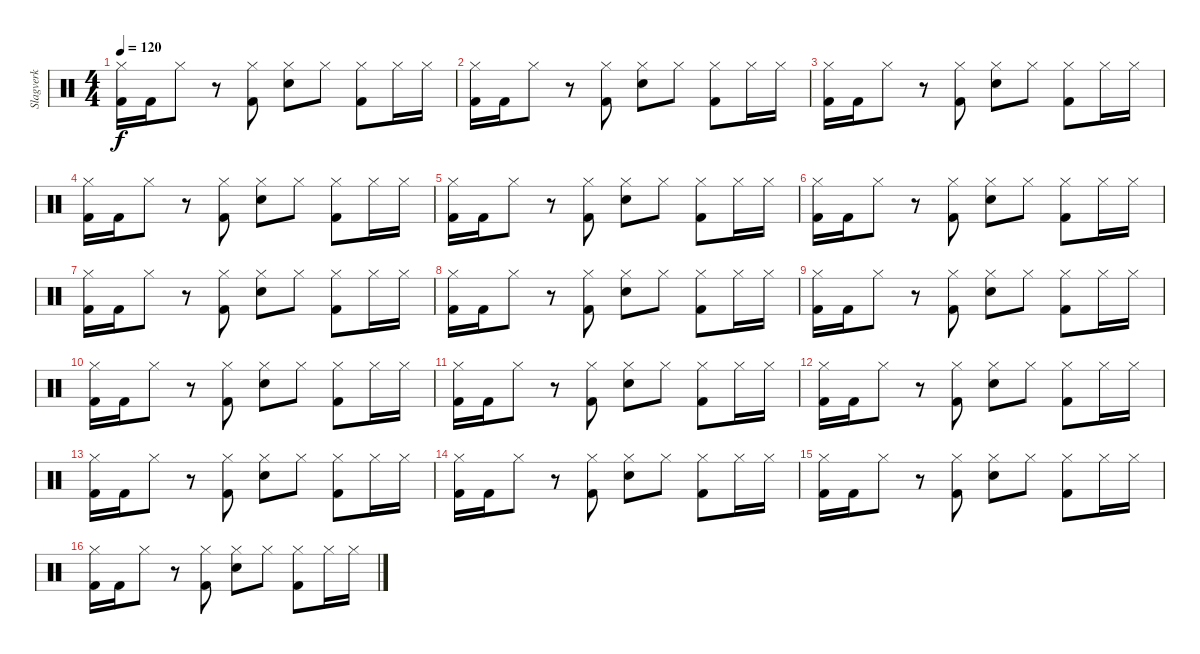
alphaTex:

\track ("Slagverk" "Slagverk") {instrument percussion}
\staff {score}
\articulation defaults
\ts (4 4)
\tempo 120
\clef neutral
\ks c
("Hi-Hat (closed)" "Kick (hit) 2").16{dy f} "Kick (hit) 2".16 "Hi-Hat (closed)".8 r.8 ("Hi-Hat (closed)" "Kick (hit) 2").8 ("Hi-Hat (closed)" "Snare (hit) 2").8 "Hi-Hat (closed)".8 ("Hi-Hat (closed)" "Kick (hit) 2").8 "Hi-Hat (closed)".16 "Hi-Hat (closed)".16 |
("Hi-Hat (closed)" "Kick (hit) 2").16 "Kick (hit) 2".16 "Hi-Hat (closed)".8 r.8 ("Hi-Hat (closed)" "Kick (hit) 2").8 ("Hi-Hat (closed)" "Snare (hit) 2").8 "Hi-Hat (closed)".8 ("Hi-Hat (closed)" "Kick (hit) 2").8 "Hi-Hat (closed)".16 "Hi-Hat (closed)".16 |
("Hi-Hat (closed)" "Kick (hit) 2").16 "Kick (hit) 2".16 "Hi-Hat (closed)".8 r.8 ("Hi-Hat (closed)" "Kick (hit) 2").8 ("Hi-Hat (closed)" "Snare (hit) 2").8 "Hi-Hat (closed)".8 ("Hi-Hat (closed)" "Kick (hit) 2").8 "Hi-Hat (closed)".16 "Hi-Hat (closed)".16 |
("Hi-Hat (closed)" "Kick (hit) 2").16 "Kick (hit) 2".16 "Hi-Hat (closed)".8 r.8 ("Hi-Hat (closed)" "Kick (hit) 2").8 ("Hi-Hat (closed)" "Snare (hit) 2").8 "Hi-Hat (closed)".8 ("Hi-Hat (closed)" "Kick (hit) 2").8 "Hi-Hat (closed)".16 "Hi-Hat (closed)".16 |
("Hi-Hat (closed)" "Kick (hit) 2").16 "Kick (hit) 2".16 "Hi-Hat (closed)".8 r.8 ("Hi-Hat (closed)" "Kick (hit) 2").8 ("Hi-Hat (closed)" "Snare (hit) 2").8 "Hi-Hat (closed)".8 ("Hi-Hat (closed)" "Kick (hit) 2").8 "Hi-Hat (closed)".16 "Hi-Hat (closed)".16 |
("Hi-Hat (closed)" "Kick (hit) 2").16 "Kick (hit) 2".16 "Hi-Hat (closed)".8 r.8 ("Hi-Hat (closed)" "Kick (hit) 2").8 ("Hi-Hat (closed)" "Snare (hit) 2").8 "Hi-Hat (closed)".8 ("Hi-Hat (closed)" "Kick (hit) 2").8 "Hi-Hat (closed)".16 "Hi-Hat (closed)".16 |
("Hi-Hat (closed)" "Kick (hit) 2").16 "Kick (hit) 2".16 "Hi-Hat (closed)".8 r.8 ("Hi-Hat (closed)" "Kick (hit) 2").8 ("Hi-Hat (closed)" "Snare (hit) 2").8 "Hi-Hat (closed)".8 ("Hi-Hat (closed)" "Kick (hit) 2").8 "Hi-Hat (closed)".16 "Hi-Hat (closed)".16 |
("Hi-Hat (closed)" "Kick (hit) 2").16 "Kick (hit) 2".16 "Hi-Hat (closed)".8 r.8 ("Hi-Hat (closed)" "Kick (hit) 2").8 ("Hi-Hat (closed)" "Snare (hit) 2").8 "Hi-Hat (closed)".8 ("Hi-Hat (closed)" "Kick (hit) 2").8 "Hi-Hat (closed)".16 "Hi-Hat (closed)".16 |
("Hi-Hat (closed)" "Kick (hit) 2").16 "Kick (hit) 2".16 "Hi-Hat (closed)".8 r.8 ("Hi-Hat (closed)" "Kick (hit) 2").8 ("Hi-Hat (closed)" "Snare (hit) 2").8 "Hi-Hat (closed)".8 ("Hi-Hat (closed)" "Kick (hit) 2").8 "Hi-Hat (closed)".16 "Hi-Hat (closed)".16 |
("Hi-Hat (closed)" "Kick (hit) 2").16 "Kick (hit) 2".16 "Hi-Hat (closed)".8 r.8 ("Hi-Hat (closed)" "Kick (hit) 2").8 ("Hi-Hat (closed)" "Snare (hit) 2").8 "Hi-Hat (closed)".8 ("Hi-Hat (closed)" "Kick (hit) 2").8 "Hi-Hat (closed)".16 "Hi-Hat (closed)".16 |
("Hi-Hat (closed)" "Kick (hit) 2").16 "Kick (hit) 2".16 "Hi-Hat (closed)".8 r.8 ("Hi-Hat (closed)" "Kick (hit) 2").8 ("Hi-Hat (closed)" "Snare (hit) 2").8 "Hi-Hat (closed)".8 ("Hi-Hat (closed)" "Kick (hit) 2").8 "Hi-Hat (closed)".16 "Hi-Hat (closed)".16 |
("Hi-Hat (closed)" "Kick (hit) 2").16 "Kick (hit) 2".16 "Hi-Hat (closed)".8 r.8 ("Hi-Hat (closed)" "Kick (hit) 2").8 ("Hi-Hat (closed)" "Snare (hit) 2").8 "Hi-Hat (closed)".8 ("Hi-Hat (closed)" "Kick (hit) 2").8 "Hi-Hat (closed)".16 "Hi-Hat (closed)".16 |
("Hi-Hat (closed)" "Kick (hit) 2").16 "Kick (hit) 2".16 "Hi-Hat (closed)".8 r.8 ("Hi-Hat (closed)" "Kick (hit) 2").8 ("Hi-Hat (closed)" "Snare (hit) 2").8 "Hi-Hat (closed)".8 ("Hi-Hat (closed)" "Kick (hit) 2").8 "Hi-Hat (closed)".16 "Hi-Hat (closed)".16 |
("Hi-Hat (closed)" "Kick (hit) 2").16 "Kick (hit) 2".16 "Hi-Hat (closed)".8 r.8 ("Hi-Hat (closed)" "Kick (hit) 2").8 ("Hi-Hat (closed)" "Snare (hit) 2").8 "Hi-Hat (closed)".8 ("Hi-Hat (closed)" "Kick (hit) 2").8 "Hi-Hat (closed)".16 "Hi-Hat (closed)".16 |
("Hi-Hat (closed)" "Kick (hit) 2").16 "Kick (hit) 2".16 "Hi-Hat (closed)".8 r.8 ("Hi-Hat (closed)" "Kick (hit) 2").8 ("Hi-Hat (closed)" "Snare (hit) 2").8 "Hi-Hat (closed)".8 ("Hi-Hat (closed)" "Kick (hit) 2").8 "Hi-Hat (closed)".16 "Hi-Hat (closed)".16 |
("Hi-Hat (closed)" "Kick (hit) 2").16 "Kick (hit) 2".16 "Hi-Hat (closed)".8 r.8 ("Hi-Hat (closed)" "Kick (hit) 2").8 ("Hi-Hat (closed)" "Snare (hit) 2").8 "Hi-Hat (closed)".8 ("Hi-Hat (closed)" "Kick (hit) 2").8 "Hi-Hat (closed)".16 "Hi-Hat (closed)".16
